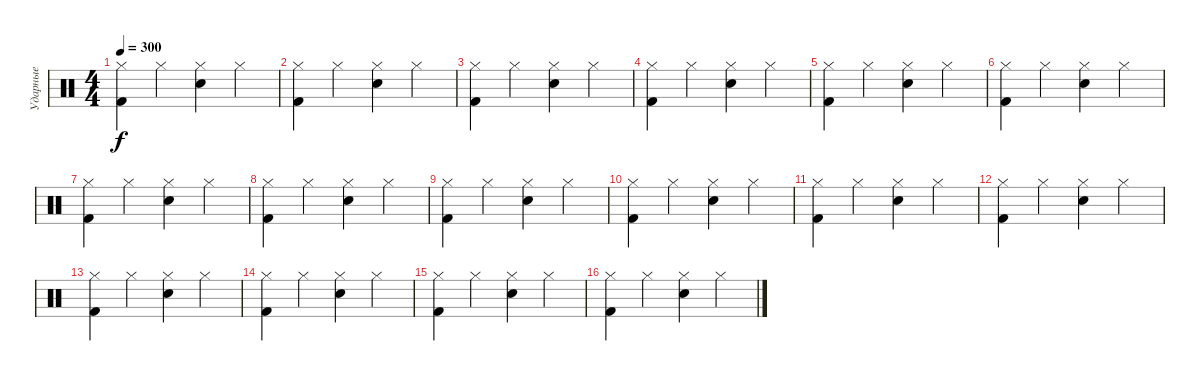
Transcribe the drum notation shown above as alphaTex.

\track ("Ударные" "Ударные") {instrument percussion}
\staff {score}
\articulation defaults
\ts (4 4)
\tempo 300
\clef neutral
\ks c
("Hi-Hat (closed)" "Kick (hit) 2").4{dy f} "Hi-Hat (closed)".4 ("Hi-Hat (closed)" "Snare (hit) 2").4 "Hi-Hat (closed)".4 |
("Hi-Hat (closed)" "Kick (hit) 2").4 "Hi-Hat (closed)".4 ("Hi-Hat (closed)" "Snare (hit) 2").4 "Hi-Hat (closed)".4 |
("Hi-Hat (closed)" "Kick (hit) 2").4 "Hi-Hat (closed)".4 ("Hi-Hat (closed)" "Snare (hit) 2").4 "Hi-Hat (closed)".4 |
("Hi-Hat (closed)" "Kick (hit) 2").4 "Hi-Hat (closed)".4 ("Hi-Hat (closed)" "Snare (hit) 2").4 "Hi-Hat (closed)".4 |
("Hi-Hat (closed)" "Kick (hit) 2").4 "Hi-Hat (closed)".4 ("Hi-Hat (closed)" "Snare (hit) 2").4 "Hi-Hat (closed)".4 |
("Hi-Hat (closed)" "Kick (hit) 2").4 "Hi-Hat (closed)".4 ("Hi-Hat (closed)" "Snare (hit) 2").4 "Hi-Hat (closed)".4 |
("Hi-Hat (closed)" "Kick (hit) 2").4 "Hi-Hat (closed)".4 ("Hi-Hat (closed)" "Snare (hit) 2").4 "Hi-Hat (closed)".4 |
("Hi-Hat (closed)" "Kick (hit) 2").4 "Hi-Hat (closed)".4 ("Hi-Hat (closed)" "Snare (hit) 2").4 "Hi-Hat (closed)".4 |
("Hi-Hat (closed)" "Kick (hit) 2").4 "Hi-Hat (closed)".4 ("Hi-Hat (closed)" "Snare (hit) 2").4 "Hi-Hat (closed)".4 |
("Hi-Hat (closed)" "Kick (hit) 2").4 "Hi-Hat (closed)".4 ("Hi-Hat (closed)" "Snare (hit) 2").4 "Hi-Hat (closed)".4 |
("Hi-Hat (closed)" "Kick (hit) 2").4 "Hi-Hat (closed)".4 ("Hi-Hat (closed)" "Snare (hit) 2").4 "Hi-Hat (closed)".4 |
("Hi-Hat (closed)" "Kick (hit) 2").4 "Hi-Hat (closed)".4 ("Hi-Hat (closed)" "Snare (hit) 2").4 "Hi-Hat (closed)".4 |
("Hi-Hat (closed)" "Kick (hit) 2").4 "Hi-Hat (closed)".4 ("Hi-Hat (closed)" "Snare (hit) 2").4 "Hi-Hat (closed)".4 |
("Hi-Hat (closed)" "Kick (hit) 2").4 "Hi-Hat (closed)".4 ("Hi-Hat (closed)" "Snare (hit) 2").4 "Hi-Hat (closed)".4 |
("Hi-Hat (closed)" "Kick (hit) 2").4 "Hi-Hat (closed)".4 ("Hi-Hat (closed)" "Snare (hit) 2").4 "Hi-Hat (closed)".4 |
("Hi-Hat (closed)" "Kick (hit) 2").4 "Hi-Hat (closed)".4 ("Hi-Hat (closed)" "Snare (hit) 2").4 "Hi-Hat (closed)".4
